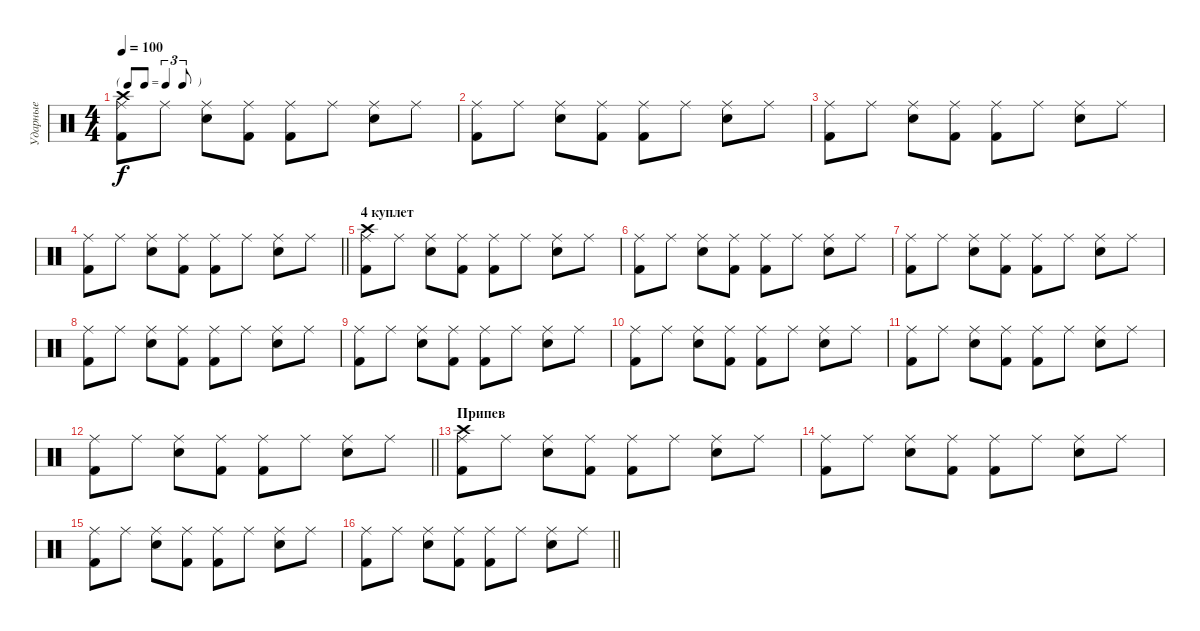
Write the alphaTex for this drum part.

\track ("Ударные" "Ударные") {instrument percussion}
\staff {score}
\articulation defaults
\ts (4 4)
\tf triplet8th
\tempo 100
\clef neutral
\ks c
("Ride (middle)" "Kick (hit) 2" "Crash high (hit)").8{dy f} "Ride (middle)".8 ("Ride (middle)" "Electric Snare (hit)").8 ("Ride (middle)" "Kick (hit) 2").8 ("Ride (middle)" "Kick (hit) 2").8 "Ride (middle)".8 ("Ride (middle)" "Electric Snare (hit)").8 "Ride (middle)".8 |
("Ride (middle)" "Kick (hit) 2").8 "Ride (middle)".8 ("Ride (middle)" "Electric Snare (hit)").8 ("Ride (middle)" "Kick (hit) 2").8 ("Ride (middle)" "Kick (hit) 2").8 "Ride (middle)".8 ("Ride (middle)" "Electric Snare (hit)").8 "Ride (middle)".8 |
("Ride (middle)" "Kick (hit) 2").8 "Ride (middle)".8 ("Ride (middle)" "Electric Snare (hit)").8 ("Ride (middle)" "Kick (hit) 2").8 ("Ride (middle)" "Kick (hit) 2").8 "Ride (middle)".8 ("Ride (middle)" "Electric Snare (hit)").8 "Ride (middle)".8 |
\barLineRight lightlight
("Ride (middle)" "Kick (hit) 2").8 "Ride (middle)".8 ("Ride (middle)" "Electric Snare (hit)").8 ("Ride (middle)" "Kick (hit) 2").8 ("Ride (middle)" "Kick (hit) 2").8 "Ride (middle)".8 ("Ride (middle)" "Electric Snare (hit)").8 "Ride (middle)".8 |
\section ("" "4 куплет")
("Ride (middle)" "Kick (hit) 2" "Crash high (hit)").8 "Ride (middle)".8 ("Ride (middle)" "Electric Snare (hit)").8 ("Ride (middle)" "Kick (hit) 2").8 ("Ride (middle)" "Kick (hit) 2").8 "Ride (middle)".8 ("Ride (middle)" "Electric Snare (hit)").8 "Ride (middle)".8 |
("Ride (middle)" "Kick (hit) 2").8 "Ride (middle)".8 ("Ride (middle)" "Electric Snare (hit)").8 ("Ride (middle)" "Kick (hit) 2").8 ("Ride (middle)" "Kick (hit) 2").8 "Ride (middle)".8 ("Ride (middle)" "Electric Snare (hit)").8 "Ride (middle)".8 |
("Ride (middle)" "Kick (hit) 2").8 "Ride (middle)".8 ("Ride (middle)" "Electric Snare (hit)").8 ("Ride (middle)" "Kick (hit) 2").8 ("Ride (middle)" "Kick (hit) 2").8 "Ride (middle)".8 ("Ride (middle)" "Electric Snare (hit)").8 "Ride (middle)".8 |
("Ride (middle)" "Kick (hit) 2").8 "Ride (middle)".8 ("Ride (middle)" "Electric Snare (hit)").8 ("Ride (middle)" "Kick (hit) 2").8 ("Ride (middle)" "Kick (hit) 2").8 "Ride (middle)".8 ("Ride (middle)" "Electric Snare (hit)").8 "Ride (middle)".8 |
("Ride (middle)" "Kick (hit) 2").8 "Ride (middle)".8 ("Ride (middle)" "Electric Snare (hit)").8 ("Ride (middle)" "Kick (hit) 2").8 ("Ride (middle)" "Kick (hit) 2").8 "Ride (middle)".8 ("Ride (middle)" "Electric Snare (hit)").8 "Ride (middle)".8 |
("Ride (middle)" "Kick (hit) 2").8 "Ride (middle)".8 ("Ride (middle)" "Electric Snare (hit)").8 ("Ride (middle)" "Kick (hit) 2").8 ("Ride (middle)" "Kick (hit) 2").8 "Ride (middle)".8 ("Ride (middle)" "Electric Snare (hit)").8 "Ride (middle)".8 |
("Ride (middle)" "Kick (hit) 2").8 "Ride (middle)".8 ("Ride (middle)" "Electric Snare (hit)").8 ("Ride (middle)" "Kick (hit) 2").8 ("Ride (middle)" "Kick (hit) 2").8 "Ride (middle)".8 ("Ride (middle)" "Electric Snare (hit)").8 "Ride (middle)".8 |
\barLineRight lightlight
("Ride (middle)" "Kick (hit) 2").8 "Ride (middle)".8 ("Ride (middle)" "Electric Snare (hit)").8 ("Ride (middle)" "Kick (hit) 2").8 ("Ride (middle)" "Kick (hit) 2").8 "Ride (middle)".8 ("Ride (middle)" "Electric Snare (hit)").8 "Ride (middle)".8 |
\section ("" "Припев")
("Ride (middle)" "Kick (hit) 2" "Crash high (hit)").8 "Ride (middle)".8 ("Ride (middle)" "Electric Snare (hit)").8 ("Ride (middle)" "Kick (hit) 2").8 ("Ride (middle)" "Kick (hit) 2").8 "Ride (middle)".8 ("Ride (middle)" "Electric Snare (hit)").8 "Ride (middle)".8 |
("Ride (middle)" "Kick (hit) 2").8 "Ride (middle)".8 ("Ride (middle)" "Electric Snare (hit)").8 ("Ride (middle)" "Kick (hit) 2").8 ("Ride (middle)" "Kick (hit) 2").8 "Ride (middle)".8 ("Ride (middle)" "Electric Snare (hit)").8 "Ride (middle)".8 |
("Ride (middle)" "Kick (hit) 2").8 "Ride (middle)".8 ("Ride (middle)" "Electric Snare (hit)").8 ("Ride (middle)" "Kick (hit) 2").8 ("Ride (middle)" "Kick (hit) 2").8 "Ride (middle)".8 ("Ride (middle)" "Electric Snare (hit)").8 "Ride (middle)".8 |
\barLineRight lightlight
("Ride (middle)" "Kick (hit) 2").8 "Ride (middle)".8 ("Ride (middle)" "Electric Snare (hit)").8 ("Ride (middle)" "Kick (hit) 2").8 ("Ride (middle)" "Kick (hit) 2").8 "Ride (middle)".8 ("Ride (middle)" "Electric Snare (hit)").8 "Ride (middle)".8
